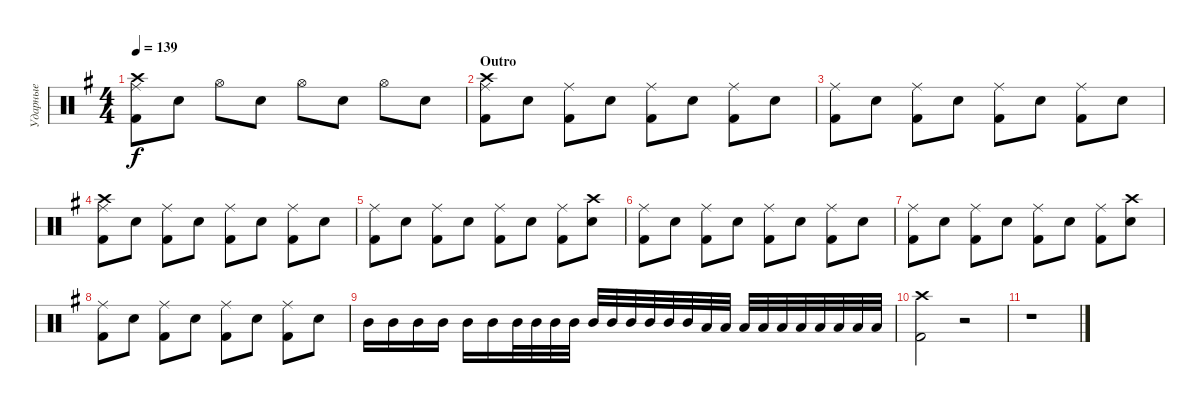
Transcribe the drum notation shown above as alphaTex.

\track ("Ударные" "Ударные") {instrument percussion}
\staff {score}
\articulation defaults
\ts (4 4)
\tempo 139
\clef neutral
\ks eminor
("Crash high (hit)" "Ride (middle)" "Kick (hit) 2").8{dy f} "Snare (hit) 2".8 "Hi-Hat (open)".8 "Snare (hit) 2".8 "Hi-Hat (open)".8 "Snare (hit) 2".8 "Hi-Hat (open)".8 "Snare (hit) 2".8 |
\section ("" "Outro")
("Crash high (hit)" "Ride (middle)" "Kick (hit) 2").8 "Snare (hit) 2".8 ("Ride (middle)" "Kick (hit) 2").8 "Snare (hit) 2".8 ("Ride (middle)" "Kick (hit) 2").8 "Snare (hit) 2".8 ("Ride (middle)" "Kick (hit) 2").8 "Snare (hit) 2".8 |
("Ride (middle)" "Kick (hit) 2").8 "Snare (hit) 2".8 ("Ride (middle)" "Kick (hit) 2").8 "Snare (hit) 2".8 ("Ride (middle)" "Kick (hit) 2").8 "Snare (hit) 2".8 ("Ride (middle)" "Kick (hit) 2").8 "Snare (hit) 2".8 |
("Crash high (hit)" "Ride (middle)" "Kick (hit) 2").8 "Snare (hit) 2".8 ("Ride (middle)" "Kick (hit) 2").8 "Snare (hit) 2".8 ("Ride (middle)" "Kick (hit) 2").8 "Snare (hit) 2".8 ("Ride (middle)" "Kick (hit) 2").8 "Snare (hit) 2".8 |
("Ride (middle)" "Kick (hit) 2").8 "Snare (hit) 2".8 ("Ride (middle)" "Kick (hit) 2").8 "Snare (hit) 2".8 ("Ride (middle)" "Kick (hit) 2").8 "Snare (hit) 2".8 ("Ride (middle)" "Kick (hit) 2").8 ("Crash high (hit)" "Snare (hit) 2").8 |
("Ride (middle)" "Kick (hit) 2").8 "Snare (hit) 2".8 ("Ride (middle)" "Kick (hit) 2").8 "Snare (hit) 2".8 ("Ride (middle)" "Kick (hit) 2").8 "Snare (hit) 2".8 ("Ride (middle)" "Kick (hit) 2").8 "Snare (hit) 2".8 |
("Ride (middle)" "Kick (hit) 2").8 "Snare (hit) 2".8 ("Ride (middle)" "Kick (hit) 2").8 "Snare (hit) 2".8 ("Ride (middle)" "Kick (hit) 2").8 "Snare (hit) 2".8 ("Ride (middle)" "Kick (hit) 2").8 ("Crash high (hit)" "Snare (hit) 2").8 |
("Ride (middle)" "Kick (hit) 2").8 "Snare (hit) 2".8 ("Ride (middle)" "Kick (hit) 2").8 "Snare (hit) 2".8 ("Ride (middle)" "Kick (hit) 2").8 "Snare (hit) 2".8 ("Ride (middle)" "Kick (hit) 2").8 "Snare (hit) 2".8 |
"Mid Tom (hit)".16 "Mid Tom (hit)".16 "Mid Tom (hit)".16 "Mid Tom (hit)".16 "Mid Tom (hit)".16 "Mid Tom (hit)".16 "Mid Tom (hit)".32 "Mid Tom (hit)".32 "Mid Tom (hit)".32 "Mid Tom (hit)".32 "Mid Tom (hit)".32 "Mid Tom (hit)".32 "Mid Tom (hit)".32 "Mid Tom (hit)".32 "Mid Tom (hit)".32 "Mid Tom (hit)".32 "Low Tom (hit)".32 "Low Tom (hit)".32 "Low Tom (hit)".32 "Low Tom (hit)".32 "Low Tom (hit)".32 "Low Tom (hit)".32 "Low Tom (hit)".32 "Low Tom (hit)".32 "Low Tom (hit)".32 "Low Tom (hit)".32 |
("Crash high (hit)" "Kick (hit) 2").2 r.2 |
r.1
